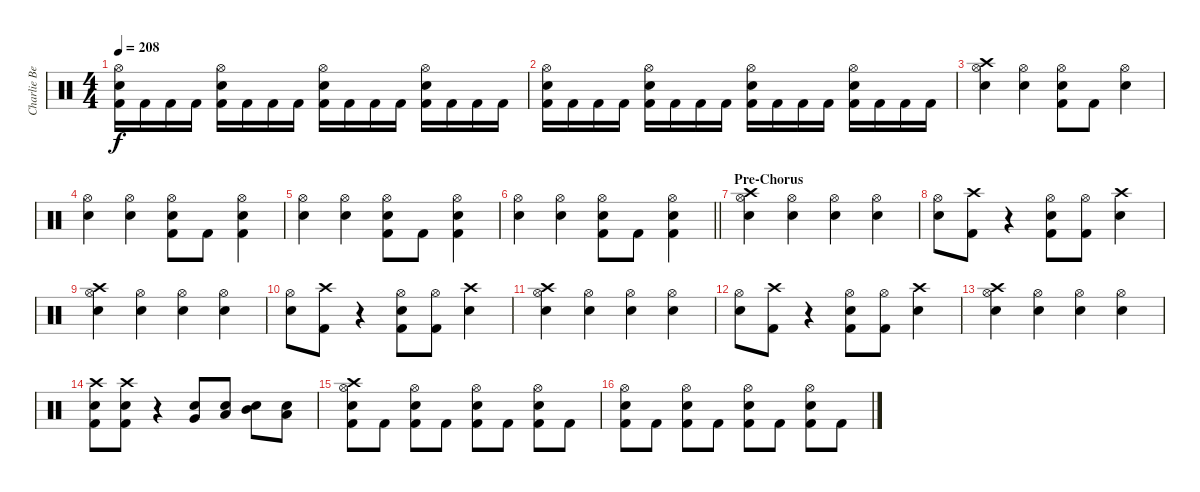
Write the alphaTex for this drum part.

\track ("Charlie Benate" "Charlie Be") {instrument percussion}
\staff {score}
\articulation defaults
\ts (4 4)
\tempo 208
\clef neutral
\ks c
("Hi-Hat (open)" "Electric Snare (hit)" "Kick (hit) 2").16{dy f} "Kick (hit) 2".16 "Kick (hit) 2".16 "Kick (hit) 2".16 ("Hi-Hat (open)" "Electric Snare (hit)" "Kick (hit) 2").16 "Kick (hit) 2".16 "Kick (hit) 2".16 "Kick (hit) 2".16 ("Hi-Hat (open)" "Electric Snare (hit)" "Kick (hit) 2").16 "Kick (hit) 2".16 "Kick (hit) 2".16 "Kick (hit) 2".16 ("Hi-Hat (open)" "Electric Snare (hit)" "Kick (hit) 2").16 "Kick (hit) 2".16 "Kick (hit) 2".16 "Kick (hit) 2".16 |
("Hi-Hat (open)" "Electric Snare (hit)" "Kick (hit) 2").16 "Kick (hit) 2".16 "Kick (hit) 2".16 "Kick (hit) 2".16 ("Hi-Hat (open)" "Electric Snare (hit)" "Kick (hit) 2").16 "Kick (hit) 2".16 "Kick (hit) 2".16 "Kick (hit) 2".16 ("Hi-Hat (open)" "Electric Snare (hit)" "Kick (hit) 2").16 "Kick (hit) 2".16 "Kick (hit) 2".16 "Kick (hit) 2".16 ("Hi-Hat (open)" "Electric Snare (hit)" "Kick (hit) 2").16 "Kick (hit) 2".16 "Kick (hit) 2".16 "Kick (hit) 2".16 |
("Hi-Hat (open)" "Electric Snare (hit)" "Crash high (hit)").4 ("Hi-Hat (open)" "Electric Snare (hit)").4 ("Hi-Hat (open)" "Electric Snare (hit)" "Kick (hit) 2").8 "Kick (hit) 2".8 ("Hi-Hat (open)" "Electric Snare (hit)").4 |
("Hi-Hat (open)" "Electric Snare (hit)").4 ("Hi-Hat (open)" "Electric Snare (hit)").4 ("Hi-Hat (open)" "Electric Snare (hit)" "Kick (hit) 2").8 "Kick (hit) 2".8 ("Hi-Hat (open)" "Electric Snare (hit)" "Kick (hit) 2").4 |
("Hi-Hat (open)" "Electric Snare (hit)").4 ("Hi-Hat (open)" "Electric Snare (hit)").4 ("Hi-Hat (open)" "Electric Snare (hit)" "Kick (hit) 2").8 "Kick (hit) 2".8 ("Hi-Hat (open)" "Electric Snare (hit)" "Kick (hit) 2").4 |
\barLineRight lightlight
("Hi-Hat (open)" "Electric Snare (hit)").4 ("Hi-Hat (open)" "Electric Snare (hit)").4 ("Hi-Hat (open)" "Electric Snare (hit)" "Kick (hit) 2").8 "Kick (hit) 2".8 ("Hi-Hat (open)" "Electric Snare (hit)" "Kick (hit) 2").4 |
\section ("" "Pre-Chorus")
("Hi-Hat (open)" "Electric Snare (hit)" "Crash high (hit)").4 ("Hi-Hat (open)" "Electric Snare (hit)").4 ("Hi-Hat (open)" "Electric Snare (hit)").4 ("Hi-Hat (open)" "Electric Snare (hit)").4 |
("Hi-Hat (open)" "Electric Snare (hit)").8 ("Crash high (hit)" "Kick (hit) 2").8 r.4 ("Hi-Hat (open)" "Electric Snare (hit)" "Kick (hit) 2").8 ("Hi-Hat (open)" "Kick (hit) 2").8 ("Crash high (hit)" "Electric Snare (hit)").4 |
("Hi-Hat (open)" "Electric Snare (hit)" "Crash high (hit)").4 ("Hi-Hat (open)" "Electric Snare (hit)").4 ("Hi-Hat (open)" "Electric Snare (hit)").4 ("Hi-Hat (open)" "Electric Snare (hit)").4 |
("Hi-Hat (open)" "Electric Snare (hit)").8 ("Crash high (hit)" "Kick (hit) 2").8 r.4 ("Hi-Hat (open)" "Electric Snare (hit)" "Kick (hit) 2").8 ("Hi-Hat (open)" "Kick (hit) 2").8 ("Crash high (hit)" "Electric Snare (hit)").4 |
("Hi-Hat (open)" "Electric Snare (hit)" "Crash high (hit)").4 ("Hi-Hat (open)" "Electric Snare (hit)").4 ("Hi-Hat (open)" "Electric Snare (hit)").4 ("Hi-Hat (open)" "Electric Snare (hit)").4 |
("Hi-Hat (open)" "Electric Snare (hit)").8 ("Crash high (hit)" "Kick (hit) 2").8 r.4 ("Hi-Hat (open)" "Electric Snare (hit)" "Kick (hit) 2").8 ("Hi-Hat (open)" "Kick (hit) 2").8 ("Crash high (hit)" "Electric Snare (hit)").4 |
("Hi-Hat (open)" "Electric Snare (hit)" "Crash high (hit)").4 ("Hi-Hat (open)" "Electric Snare (hit)").4 ("Hi-Hat (open)" "Electric Snare (hit)").4 ("Hi-Hat (open)" "Electric Snare (hit)").4 |
("Crash high (hit)" "Electric Snare (hit)" "Kick (hit) 2").8 ("Crash high (hit)" "Electric Snare (hit)" "Kick (hit) 2").8 r.4 ("Very Low Tom (hit)" "Electric Snare (hit)").8 ("Low Tom (hit)" "Electric Snare (hit)").8 ("Mid Tom (hit)" "Electric Snare (hit)").8 ("Low Floor Tom (hit)" "Electric Snare (hit)").8 |
("Hi-Hat (open)" "Electric Snare (hit)" "Kick (hit) 2" "Crash high (hit)").8 "Kick (hit) 2".8 ("Hi-Hat (open)" "Electric Snare (hit)" "Kick (hit) 2").8 "Kick (hit) 2".8 ("Hi-Hat (open)" "Electric Snare (hit)" "Kick (hit) 2").8 "Kick (hit) 2".8 ("Hi-Hat (open)" "Electric Snare (hit)" "Kick (hit) 2").8 "Kick (hit) 2".8 |
("Hi-Hat (open)" "Electric Snare (hit)" "Kick (hit) 2").8 "Kick (hit) 2".8 ("Hi-Hat (open)" "Electric Snare (hit)" "Kick (hit) 2").8 "Kick (hit) 2".8 ("Hi-Hat (open)" "Electric Snare (hit)" "Kick (hit) 2").8 "Kick (hit) 2".8 ("Hi-Hat (open)" "Electric Snare (hit)" "Kick (hit) 2").8 "Kick (hit) 2".8
